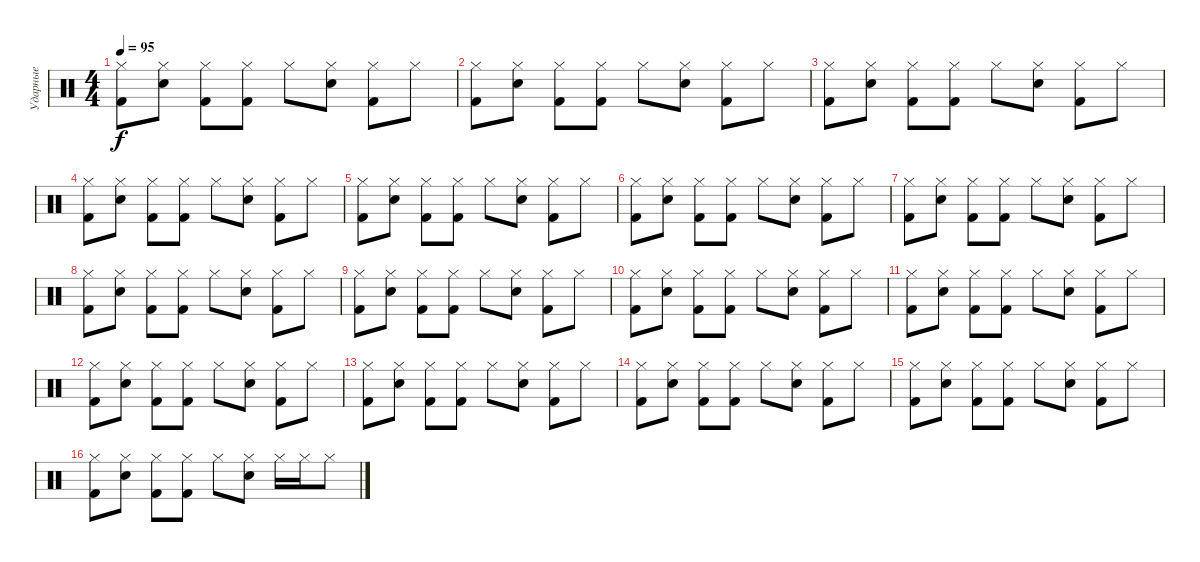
\track ("Ударные" "Ударные") {instrument percussion}
\staff {score}
\articulation defaults
\ts (4 4)
\tempo 95
\clef neutral
\ks c
("Kick (hit) 2" "Hi-Hat (closed)").8{dy f} ("Electric Snare (hit)" "Hi-Hat (closed)").8 ("Kick (hit) 2" "Hi-Hat (closed)").8 ("Kick (hit) 2" "Hi-Hat (closed)").8 "Hi-Hat (closed)".8 ("Electric Snare (hit)" "Hi-Hat (closed)").8 ("Kick (hit) 2" "Hi-Hat (closed)").8 "Hi-Hat (closed)".8 |
("Kick (hit) 2" "Hi-Hat (closed)").8 ("Electric Snare (hit)" "Hi-Hat (closed)").8 ("Kick (hit) 2" "Hi-Hat (closed)").8 ("Kick (hit) 2" "Hi-Hat (closed)").8 "Hi-Hat (closed)".8 ("Electric Snare (hit)" "Hi-Hat (closed)").8 ("Kick (hit) 2" "Hi-Hat (closed)").8 "Hi-Hat (closed)".8 |
("Kick (hit) 2" "Hi-Hat (closed)").8 ("Electric Snare (hit)" "Hi-Hat (closed)").8 ("Kick (hit) 2" "Hi-Hat (closed)").8 ("Kick (hit) 2" "Hi-Hat (closed)").8 "Hi-Hat (closed)".8 ("Electric Snare (hit)" "Hi-Hat (closed)").8 ("Kick (hit) 2" "Hi-Hat (closed)").8 "Hi-Hat (closed)".8 |
("Kick (hit) 2" "Hi-Hat (closed)").8 ("Electric Snare (hit)" "Hi-Hat (closed)").8 ("Kick (hit) 2" "Hi-Hat (closed)").8 ("Kick (hit) 2" "Hi-Hat (closed)").8 "Hi-Hat (closed)".8 ("Electric Snare (hit)" "Hi-Hat (closed)").8 ("Kick (hit) 2" "Hi-Hat (closed)").8 "Hi-Hat (closed)".8 |
("Kick (hit) 2" "Hi-Hat (closed)").8 ("Electric Snare (hit)" "Hi-Hat (closed)").8 ("Kick (hit) 2" "Hi-Hat (closed)").8 ("Kick (hit) 2" "Hi-Hat (closed)").8 "Hi-Hat (closed)".8 ("Electric Snare (hit)" "Hi-Hat (closed)").8 ("Kick (hit) 2" "Hi-Hat (closed)").8 "Hi-Hat (closed)".8 |
("Kick (hit) 2" "Hi-Hat (closed)").8 ("Electric Snare (hit)" "Hi-Hat (closed)").8 ("Kick (hit) 2" "Hi-Hat (closed)").8 ("Kick (hit) 2" "Hi-Hat (closed)").8 "Hi-Hat (closed)".8 ("Electric Snare (hit)" "Hi-Hat (closed)").8 ("Kick (hit) 2" "Hi-Hat (closed)").8 "Hi-Hat (closed)".8 |
("Kick (hit) 2" "Hi-Hat (closed)").8 ("Electric Snare (hit)" "Hi-Hat (closed)").8 ("Kick (hit) 2" "Hi-Hat (closed)").8 ("Kick (hit) 2" "Hi-Hat (closed)").8 "Hi-Hat (closed)".8 ("Electric Snare (hit)" "Hi-Hat (closed)").8 ("Kick (hit) 2" "Hi-Hat (closed)").8 "Hi-Hat (closed)".8 |
("Kick (hit) 2" "Hi-Hat (closed)").8 ("Electric Snare (hit)" "Hi-Hat (closed)").8 ("Kick (hit) 2" "Hi-Hat (closed)").8 ("Kick (hit) 2" "Hi-Hat (closed)").8 "Hi-Hat (closed)".8 ("Electric Snare (hit)" "Hi-Hat (closed)").8 ("Kick (hit) 2" "Hi-Hat (closed)").8 "Hi-Hat (closed)".8 |
("Kick (hit) 2" "Hi-Hat (closed)").8 ("Electric Snare (hit)" "Hi-Hat (closed)").8 ("Kick (hit) 2" "Hi-Hat (closed)").8 ("Kick (hit) 2" "Hi-Hat (closed)").8 "Hi-Hat (closed)".8 ("Electric Snare (hit)" "Hi-Hat (closed)").8 ("Kick (hit) 2" "Hi-Hat (closed)").8 "Hi-Hat (closed)".8 |
("Kick (hit) 2" "Hi-Hat (closed)").8 ("Electric Snare (hit)" "Hi-Hat (closed)").8 ("Kick (hit) 2" "Hi-Hat (closed)").8 ("Kick (hit) 2" "Hi-Hat (closed)").8 "Hi-Hat (closed)".8 ("Electric Snare (hit)" "Hi-Hat (closed)").8 ("Kick (hit) 2" "Hi-Hat (closed)").8 "Hi-Hat (closed)".8 |
("Kick (hit) 2" "Hi-Hat (closed)").8 ("Electric Snare (hit)" "Hi-Hat (closed)").8 ("Kick (hit) 2" "Hi-Hat (closed)").8 ("Kick (hit) 2" "Hi-Hat (closed)").8 "Hi-Hat (closed)".8 ("Electric Snare (hit)" "Hi-Hat (closed)").8 ("Kick (hit) 2" "Hi-Hat (closed)").8 "Hi-Hat (closed)".8 |
("Kick (hit) 2" "Hi-Hat (closed)").8 ("Electric Snare (hit)" "Hi-Hat (closed)").8 ("Kick (hit) 2" "Hi-Hat (closed)").8 ("Kick (hit) 2" "Hi-Hat (closed)").8 "Hi-Hat (closed)".8 ("Electric Snare (hit)" "Hi-Hat (closed)").8 ("Kick (hit) 2" "Hi-Hat (closed)").8 "Hi-Hat (closed)".8 |
("Kick (hit) 2" "Hi-Hat (closed)").8 ("Electric Snare (hit)" "Hi-Hat (closed)").8 ("Kick (hit) 2" "Hi-Hat (closed)").8 ("Kick (hit) 2" "Hi-Hat (closed)").8 "Hi-Hat (closed)".8 ("Electric Snare (hit)" "Hi-Hat (closed)").8 ("Kick (hit) 2" "Hi-Hat (closed)").8 "Hi-Hat (closed)".8 |
("Kick (hit) 2" "Hi-Hat (closed)").8 ("Electric Snare (hit)" "Hi-Hat (closed)").8 ("Kick (hit) 2" "Hi-Hat (closed)").8 ("Kick (hit) 2" "Hi-Hat (closed)").8 "Hi-Hat (closed)".8 ("Electric Snare (hit)" "Hi-Hat (closed)").8 ("Kick (hit) 2" "Hi-Hat (closed)").8 "Hi-Hat (closed)".8 |
("Kick (hit) 2" "Hi-Hat (closed)").8 ("Electric Snare (hit)" "Hi-Hat (closed)").8 ("Kick (hit) 2" "Hi-Hat (closed)").8 ("Kick (hit) 2" "Hi-Hat (closed)").8 "Hi-Hat (closed)".8 ("Electric Snare (hit)" "Hi-Hat (closed)").8 ("Kick (hit) 2" "Hi-Hat (closed)").8 "Hi-Hat (closed)".8 |
("Kick (hit) 2" "Hi-Hat (closed)").8 ("Electric Snare (hit)" "Hi-Hat (closed)").8 ("Kick (hit) 2" "Hi-Hat (closed)").8 ("Kick (hit) 2" "Hi-Hat (closed)").8 "Hi-Hat (closed)".8 ("Electric Snare (hit)" "Hi-Hat (closed)").8 "Hi-Hat (closed)".16 "Hi-Hat (closed)".16 "Hi-Hat (closed)".8
